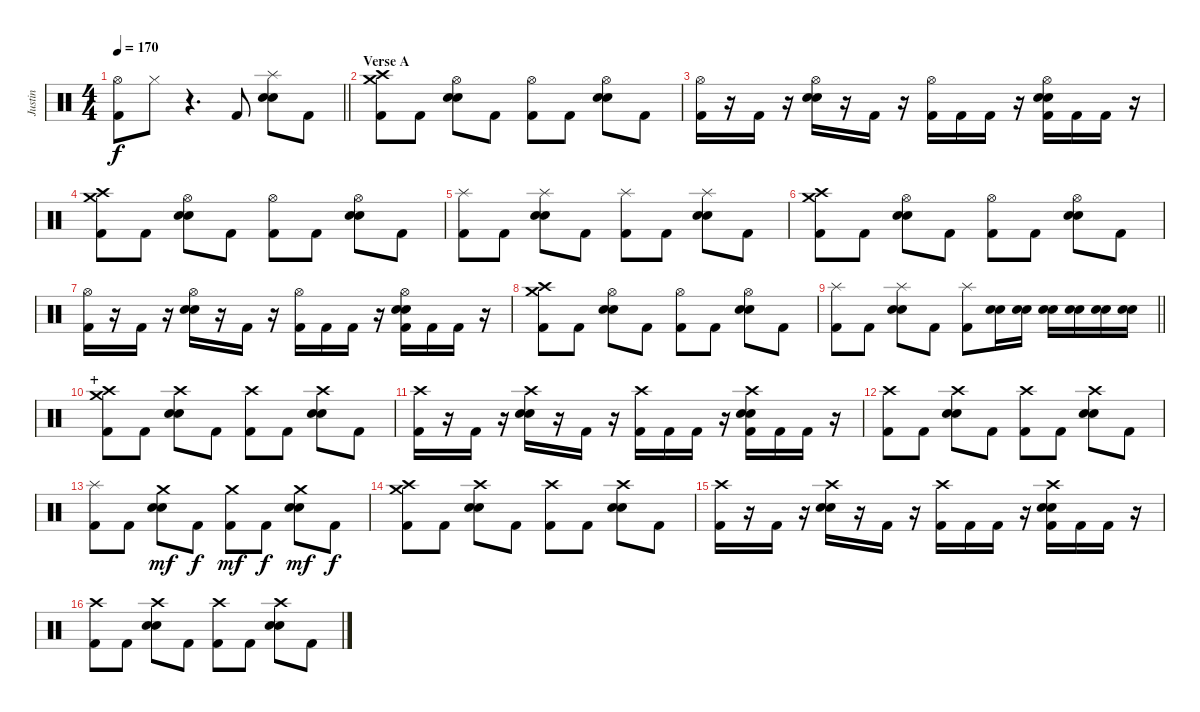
\track ("Justin" "Justin") {instrument percussion}
\staff {score}
\articulation defaults
\ts (4 4)
\tempo 170
\clef neutral
\barLineRight lightlight
\ks c
("Hi-Hat (open)" "Kick (hit) 2").8{dy f} "Hi-Hat (closed)".8 r.4{d} "Kick (hit) 2".8 ("Splash (hit)" "Electric Snare (hit)" "Snare (hit) 2").8 "Kick (hit) 2".8 |
\section ("" "Verse A")
("Crash high (hit)" "Crash medium (hit)" "Kick (hit) 2").8 "Kick (hit) 2".8 ("Hi-Hat (open)" "Electric Snare (hit)" "Snare (hit) 2").8 "Kick (hit) 2".8 ("Hi-Hat (open)" "Kick (hit) 2").8 "Kick (hit) 2".8 ("Hi-Hat (open)" "Electric Snare (hit)" "Snare (hit) 2").8 "Kick (hit) 2".8 |
("Hi-Hat (open)" "Kick (hit) 2").16 r.16 "Kick (hit) 2".16 r.16 ("Hi-Hat (open)" "Electric Snare (hit)" "Snare (hit) 2").16 r.16 "Kick (hit) 2".16 r.16 ("Hi-Hat (open)" "Kick (hit) 2").16 "Kick (hit) 2".16 "Kick (hit) 2".16 r.16 ("Hi-Hat (open)" "Electric Snare (hit)" "Snare (hit) 2" "Kick (hit) 2").16 "Kick (hit) 2".16 "Kick (hit) 2".16 r.16 |
("Crash high (hit)" "Crash medium (hit)" "Kick (hit) 2").8 "Kick (hit) 2".8 ("Hi-Hat (open)" "Electric Snare (hit)" "Snare (hit) 2").8 "Kick (hit) 2".8 ("Hi-Hat (open)" "Kick (hit) 2").8 "Kick (hit) 2".8 ("Hi-Hat (open)" "Electric Snare (hit)" "Snare (hit) 2").8 "Kick (hit) 2".8 |
("Splash (hit)" "Kick (hit) 2").8 "Kick (hit) 2".8 ("Splash (hit)" "Electric Snare (hit)" "Snare (hit) 2").8 "Kick (hit) 2".8 ("Splash (hit)" "Kick (hit) 2").8 "Kick (hit) 2".8 ("Splash (hit)" "Electric Snare (hit)" "Snare (hit) 2").8 "Kick (hit) 2".8 |
("Crash high (hit)" "Crash medium (hit)" "Kick (hit) 2").8 "Kick (hit) 2".8 ("Hi-Hat (open)" "Electric Snare (hit)" "Snare (hit) 2").8 "Kick (hit) 2".8 ("Hi-Hat (open)" "Kick (hit) 2").8 "Kick (hit) 2".8 ("Hi-Hat (open)" "Electric Snare (hit)" "Snare (hit) 2").8 "Kick (hit) 2".8 |
("Hi-Hat (open)" "Kick (hit) 2").16 r.16 "Kick (hit) 2".16 r.16 ("Hi-Hat (open)" "Electric Snare (hit)" "Snare (hit) 2").16 r.16 "Kick (hit) 2".16 r.16 ("Hi-Hat (open)" "Kick (hit) 2").16 "Kick (hit) 2".16 "Kick (hit) 2".16 r.16 ("Hi-Hat (open)" "Electric Snare (hit)" "Snare (hit) 2" "Kick (hit) 2").16 "Kick (hit) 2".16 "Kick (hit) 2".16 r.16 |
("Crash high (hit)" "Crash medium (hit)" "Kick (hit) 2").8 "Kick (hit) 2".8 ("Hi-Hat (open)" "Electric Snare (hit)" "Snare (hit) 2").8 "Kick (hit) 2".8 ("Hi-Hat (open)" "Kick (hit) 2").8 "Kick (hit) 2".8 ("Hi-Hat (open)" "Electric Snare (hit)" "Snare (hit) 2").8 "Kick (hit) 2".8 |
\barLineRight lightlight
("Splash (hit)" "Kick (hit) 2").8 "Kick (hit) 2".8 ("Splash (hit)" "Electric Snare (hit)" "Snare (hit) 2").8 "Kick (hit) 2".8 ("Splash (hit)" "Kick (hit) 2").8 ("Electric Snare (hit)" "Snare (hit) 2").16 ("Electric Snare (hit)" "Snare (hit) 2").16 ("Electric Snare (hit)" "Snare (hit) 2").16 ("Electric Snare (hit)" "Snare (hit) 2").16 ("Electric Snare (hit)" "Snare (hit) 2").16 ("Electric Snare (hit)" "Snare (hit) 2").16 |
\section ("" "+")
("Crash high (hit)" "Crash medium (hit)" "Kick (hit) 2").8 "Kick (hit) 2".8 ("Crash high (hit)" "Electric Snare (hit)" "Snare (hit) 2").8 "Kick (hit) 2".8 ("Crash high (hit)" "Kick (hit) 2").8 "Kick (hit) 2".8 ("Crash high (hit)" "Electric Snare (hit)" "Snare (hit) 2").8 "Kick (hit) 2".8 |
("Crash high (hit)" "Kick (hit) 2").16 r.16 "Kick (hit) 2".16 r.16 ("Crash high (hit)" "Electric Snare (hit)" "Snare (hit) 2").16 r.16 "Kick (hit) 2".16 r.16 ("Crash high (hit)" "Kick (hit) 2").16 "Kick (hit) 2".16 "Kick (hit) 2".16 r.16 ("Crash high (hit)" "Electric Snare (hit)" "Snare (hit) 2" "Kick (hit) 2").16 "Kick (hit) 2".16 "Kick (hit) 2".16 r.16 |
("Crash high (hit)" "Kick (hit) 2").8 "Kick (hit) 2".8 ("Crash high (hit)" "Electric Snare (hit)" "Snare (hit) 2").8 "Kick (hit) 2".8 ("Crash high (hit)" "Kick (hit) 2").8 "Kick (hit) 2".8 ("Crash high (hit)" "Electric Snare (hit)" "Snare (hit) 2").8 "Kick (hit) 2".8 |
("Splash (hit)" "Kick (hit) 2").8 "Kick (hit) 2".8 ("Crash medium (hit)" "Electric Snare (hit)" "Snare (hit) 2").8{dy mf} "Kick (hit) 2".8{dy f} ("Crash medium (hit)" "Kick (hit) 2").8{dy mf} "Kick (hit) 2".8{dy f} ("Crash medium (hit)" "Electric Snare (hit)" "Snare (hit) 2").8{dy mf} "Kick (hit) 2".8{dy f} |
("Crash high (hit)" "Crash medium (hit)" "Kick (hit) 2").8 "Kick (hit) 2".8 ("Crash high (hit)" "Electric Snare (hit)" "Snare (hit) 2").8 "Kick (hit) 2".8 ("Crash high (hit)" "Kick (hit) 2").8 "Kick (hit) 2".8 ("Crash high (hit)" "Electric Snare (hit)" "Snare (hit) 2").8 "Kick (hit) 2".8 |
("Crash high (hit)" "Kick (hit) 2").16 r.16 "Kick (hit) 2".16 r.16 ("Crash high (hit)" "Electric Snare (hit)" "Snare (hit) 2").16 r.16 "Kick (hit) 2".16 r.16 ("Crash high (hit)" "Kick (hit) 2").16 "Kick (hit) 2".16 "Kick (hit) 2".16 r.16 ("Crash high (hit)" "Electric Snare (hit)" "Snare (hit) 2" "Kick (hit) 2").16 "Kick (hit) 2".16 "Kick (hit) 2".16 r.16 |
("Crash high (hit)" "Kick (hit) 2").8 "Kick (hit) 2".8 ("Crash high (hit)" "Electric Snare (hit)" "Snare (hit) 2").8 "Kick (hit) 2".8 ("Crash high (hit)" "Kick (hit) 2").8 "Kick (hit) 2".8 ("Crash high (hit)" "Electric Snare (hit)" "Snare (hit) 2").8 "Kick (hit) 2".8
